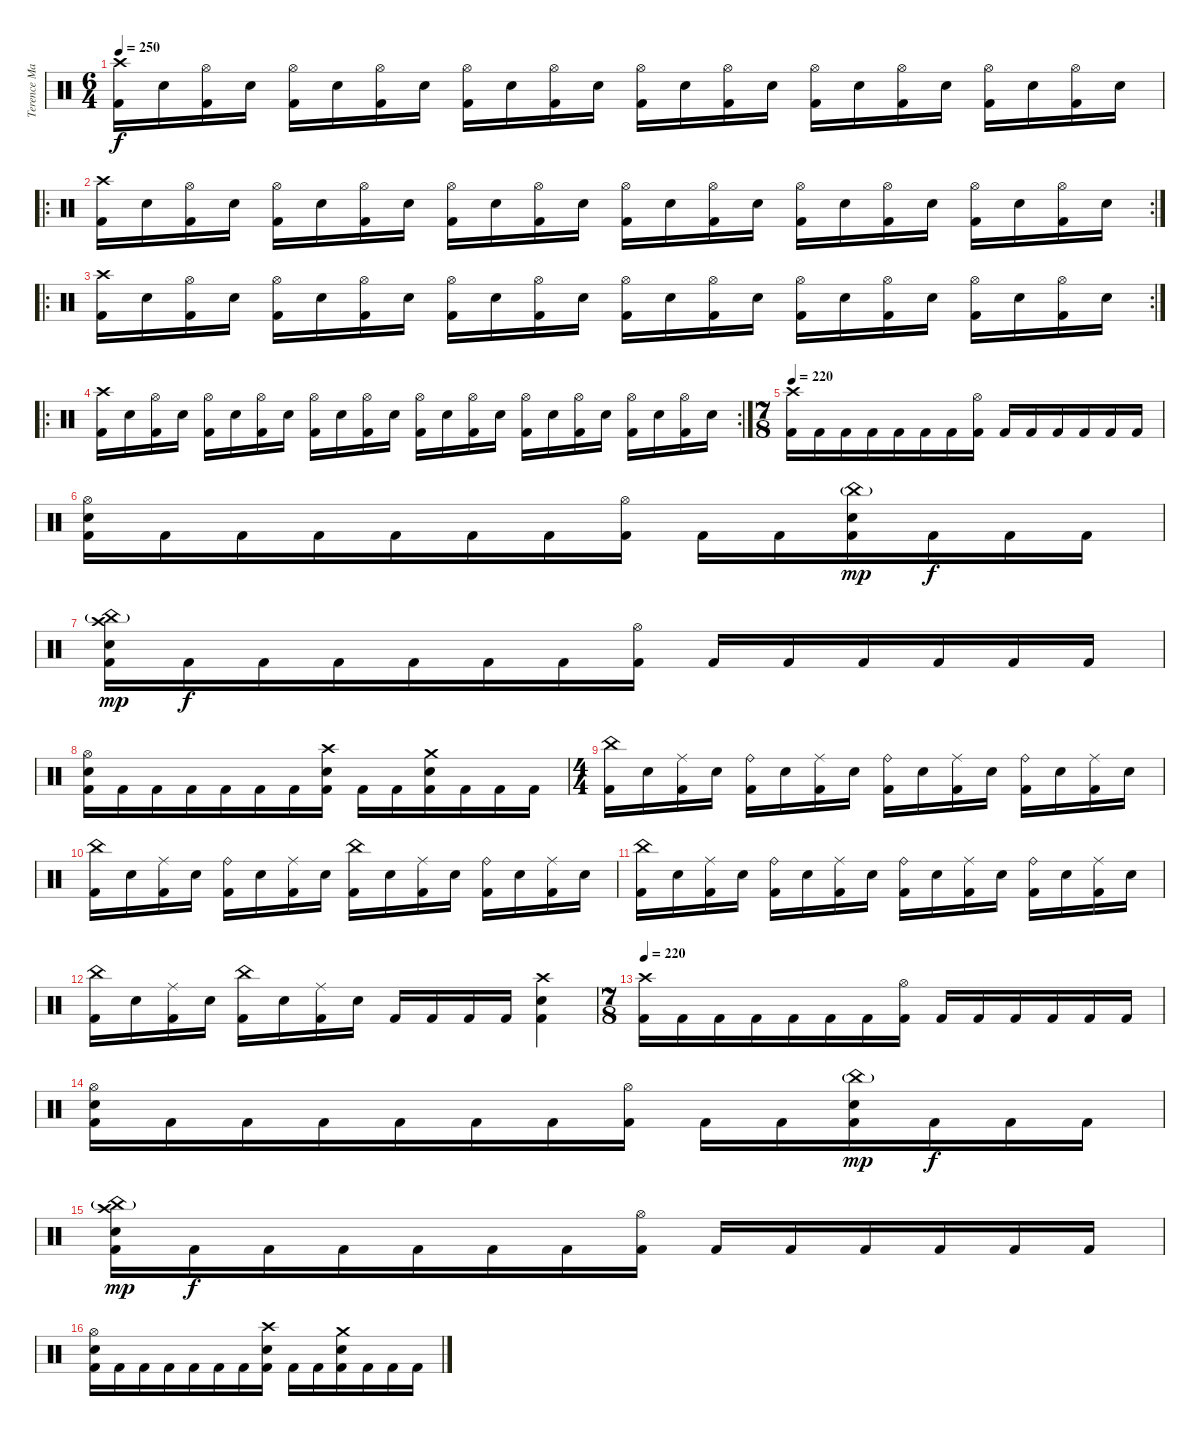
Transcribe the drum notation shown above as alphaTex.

\track ("Terence Manauis" "Terence Ma") {instrument percussion}
\staff {score}
\articulation defaults
\ts (6 4)
\tempo 250
\clef neutral
\ks c
("Crash high (hit)" "Kick (hit) 2").16{dy f} "Electric Snare (hit)".16 ("Hi-Hat (open)" "Kick (hit) 2").16 "Electric Snare (hit)".16 ("Hi-Hat (open)" "Kick (hit) 2").16 "Electric Snare (hit)".16 ("Hi-Hat (open)" "Kick (hit) 2").16 "Electric Snare (hit)".16 ("Hi-Hat (open)" "Kick (hit) 2").16 "Electric Snare (hit)".16 ("Hi-Hat (open)" "Kick (hit) 2").16 "Electric Snare (hit)".16 ("Hi-Hat (open)" "Kick (hit) 2").16 "Electric Snare (hit)".16 ("Hi-Hat (open)" "Kick (hit) 2").16 "Electric Snare (hit)".16 ("Hi-Hat (open)" "Kick (hit) 2").16 "Electric Snare (hit)".16 ("Hi-Hat (open)" "Kick (hit) 2").16 "Electric Snare (hit)".16 ("Hi-Hat (open)" "Kick (hit) 2").16 "Electric Snare (hit)".16 ("Hi-Hat (open)" "Kick (hit) 2").16 "Electric Snare (hit)".16 |
\ro
\rc 2
("Crash high (hit)" "Kick (hit) 2").16 "Electric Snare (hit)".16 ("Hi-Hat (open)" "Kick (hit) 2").16 "Electric Snare (hit)".16 ("Hi-Hat (open)" "Kick (hit) 2").16 "Electric Snare (hit)".16 ("Hi-Hat (open)" "Kick (hit) 2").16 "Electric Snare (hit)".16 ("Hi-Hat (open)" "Kick (hit) 2").16 "Electric Snare (hit)".16 ("Hi-Hat (open)" "Kick (hit) 2").16 "Electric Snare (hit)".16 ("Hi-Hat (open)" "Kick (hit) 2").16 "Electric Snare (hit)".16 ("Hi-Hat (open)" "Kick (hit) 2").16 "Electric Snare (hit)".16 ("Hi-Hat (open)" "Kick (hit) 2").16 "Electric Snare (hit)".16 ("Hi-Hat (open)" "Kick (hit) 2").16 "Electric Snare (hit)".16 ("Hi-Hat (open)" "Kick (hit) 2").16 "Electric Snare (hit)".16 ("Hi-Hat (open)" "Kick (hit) 2").16 "Electric Snare (hit)".16 |
\ro
\rc 2
("Crash high (hit)" "Kick (hit) 2").16 "Electric Snare (hit)".16 ("Hi-Hat (open)" "Kick (hit) 2").16 "Electric Snare (hit)".16 ("Hi-Hat (open)" "Kick (hit) 2").16 "Electric Snare (hit)".16 ("Hi-Hat (open)" "Kick (hit) 2").16 "Electric Snare (hit)".16 ("Hi-Hat (open)" "Kick (hit) 2").16 "Electric Snare (hit)".16 ("Hi-Hat (open)" "Kick (hit) 2").16 "Electric Snare (hit)".16 ("Hi-Hat (open)" "Kick (hit) 2").16 "Electric Snare (hit)".16 ("Hi-Hat (open)" "Kick (hit) 2").16 "Electric Snare (hit)".16 ("Hi-Hat (open)" "Kick (hit) 2").16 "Electric Snare (hit)".16 ("Hi-Hat (open)" "Kick (hit) 2").16 "Electric Snare (hit)".16 ("Hi-Hat (open)" "Kick (hit) 2").16 "Electric Snare (hit)".16 ("Hi-Hat (open)" "Kick (hit) 2").16 "Electric Snare (hit)".16 |
\ro
\rc 2
("Crash high (hit)" "Kick (hit) 2").16 "Electric Snare (hit)".16 ("Hi-Hat (open)" "Kick (hit) 2").16 "Electric Snare (hit)".16 ("Hi-Hat (open)" "Kick (hit) 2").16 "Electric Snare (hit)".16 ("Hi-Hat (open)" "Kick (hit) 2").16 "Electric Snare (hit)".16 ("Hi-Hat (open)" "Kick (hit) 2").16 "Electric Snare (hit)".16 ("Hi-Hat (open)" "Kick (hit) 2").16 "Electric Snare (hit)".16 ("Hi-Hat (open)" "Kick (hit) 2").16 "Electric Snare (hit)".16 ("Hi-Hat (open)" "Kick (hit) 2").16 "Electric Snare (hit)".16 ("Hi-Hat (open)" "Kick (hit) 2").16 "Electric Snare (hit)".16 ("Hi-Hat (open)" "Kick (hit) 2").16 "Electric Snare (hit)".16 ("Hi-Hat (open)" "Kick (hit) 2").16 "Electric Snare (hit)".16 ("Hi-Hat (open)" "Kick (hit) 2").16 "Electric Snare (hit)".16 |
\ts (7 8)
\tempo 220
("Crash high (hit)" "Kick (hit) 2").16{volume 14} "Kick (hit) 2".16 "Kick (hit) 2".16 "Kick (hit) 2".16 "Kick (hit) 2".16 "Kick (hit) 2".16 "Kick (hit) 2".16 ("Hi-Hat (open)" "Kick (hit) 2").16 "Kick (hit) 2".16 "Kick (hit) 2".16 "Kick (hit) 2".16 "Kick (hit) 2".16 "Kick (hit) 2".16 "Kick (hit) 2".16 |
("Hi-Hat (open)" "Electric Snare (hit)" "Kick (hit) 2").16 "Kick (hit) 2".16 "Kick (hit) 2".16 "Kick (hit) 2".16 "Kick (hit) 2".16 "Kick (hit) 2".16 "Kick (hit) 2".16 ("Hi-Hat (open)" "Kick (hit) 2").16 "Kick (hit) 2".16 "Kick (hit) 2".16 ("China (hit)"{g} "Electric Snare (hit)" "Kick (hit) 2").16{dy mp} "Kick (hit) 2".16{dy f} "Kick (hit) 2".16 "Kick (hit) 2".16 |
("Crash high (hit)" "China (hit)"{g} "Electric Snare (hit)" "Kick (hit) 2").16{dy mp} "Kick (hit) 2".16{dy f} "Kick (hit) 2".16 "Kick (hit) 2".16 "Kick (hit) 2".16 "Kick (hit) 2".16 "Kick (hit) 2".16 ("Hi-Hat (open)" "Kick (hit) 2").16 "Kick (hit) 2".16 "Kick (hit) 2".16 "Kick (hit) 2".16 "Kick (hit) 2".16 "Kick (hit) 2".16 "Kick (hit) 2".16 |
("Hi-Hat (open)" "Electric Snare (hit)" "Kick (hit) 2").16 "Kick (hit) 2".16 "Kick (hit) 2".16 "Kick (hit) 2".16 "Kick (hit) 2".16 "Kick (hit) 2".16 "Kick (hit) 2".16 ("Crash high (hit)" "Electric Snare (hit)" "Kick (hit) 2").16 "Kick (hit) 2".16 "Kick (hit) 2".16 ("Crash medium (hit)" "Electric Snare (hit)" "Kick (hit) 2").16 "Kick (hit) 2".16 "Kick (hit) 2".16 "Kick (hit) 2".16 |
\ts (4 4)
("China (hit)" "Kick (hit) 2").16{volume 12} "Electric Snare (hit)".16 ("Ride (middle)" "Kick (hit) 2").16 "Electric Snare (hit)".16 ("Ride (bell)" "Kick (hit) 2").16 "Electric Snare (hit)".16 ("Ride (middle)" "Kick (hit) 2").16 "Electric Snare (hit)".16 ("Ride (bell)" "Kick (hit) 2").16 "Electric Snare (hit)".16 ("Ride (middle)" "Kick (hit) 2").16 "Electric Snare (hit)".16 ("Ride (bell)" "Kick (hit) 2").16 "Electric Snare (hit)".16 ("Ride (middle)" "Kick (hit) 2").16 "Electric Snare (hit)".16 |
("China (hit)" "Kick (hit) 2").16 "Electric Snare (hit)".16 ("Ride (middle)" "Kick (hit) 2").16 "Electric Snare (hit)".16 ("Ride (bell)" "Kick (hit) 2").16 "Electric Snare (hit)".16 ("Ride (middle)" "Kick (hit) 2").16 "Electric Snare (hit)".16 ("China (hit)" "Kick (hit) 2").16 "Electric Snare (hit)".16 ("Ride (middle)" "Kick (hit) 2").16 "Electric Snare (hit)".16 ("Ride (bell)" "Kick (hit) 2").16 "Electric Snare (hit)".16 ("Ride (middle)" "Kick (hit) 2").16 "Electric Snare (hit)".16 |
("China (hit)" "Kick (hit) 2").16 "Electric Snare (hit)".16 ("Ride (middle)" "Kick (hit) 2").16 "Electric Snare (hit)".16 ("Ride (bell)" "Kick (hit) 2").16 "Electric Snare (hit)".16 ("Ride (middle)" "Kick (hit) 2").16 "Electric Snare (hit)".16 ("Ride (bell)" "Kick (hit) 2").16 "Electric Snare (hit)".16 ("Ride (middle)" "Kick (hit) 2").16 "Electric Snare (hit)".16 ("Ride (bell)" "Kick (hit) 2").16 "Electric Snare (hit)".16 ("Ride (middle)" "Kick (hit) 2").16 "Electric Snare (hit)".16 |
("China (hit)" "Kick (hit) 2").16 "Electric Snare (hit)".16 ("Ride (middle)" "Kick (hit) 2").16 "Electric Snare (hit)".16 ("China (hit)" "Kick (hit) 2").16 "Electric Snare (hit)".16 ("Ride (middle)" "Kick (hit) 2").16 "Electric Snare (hit)".16 "Kick (hit) 2".16 "Kick (hit) 2".16 "Kick (hit) 2".16 "Kick (hit) 2".16 ("Crash high (hit)" "Electric Snare (hit)" "Kick (hit) 2").4 |
\ts (7 8)
\tempo 220
("Crash high (hit)" "Kick (hit) 2").16{volume 14} "Kick (hit) 2".16 "Kick (hit) 2".16 "Kick (hit) 2".16 "Kick (hit) 2".16 "Kick (hit) 2".16 "Kick (hit) 2".16 ("Hi-Hat (open)" "Kick (hit) 2").16 "Kick (hit) 2".16 "Kick (hit) 2".16 "Kick (hit) 2".16 "Kick (hit) 2".16 "Kick (hit) 2".16 "Kick (hit) 2".16 |
("Hi-Hat (open)" "Electric Snare (hit)" "Kick (hit) 2").16 "Kick (hit) 2".16 "Kick (hit) 2".16 "Kick (hit) 2".16 "Kick (hit) 2".16 "Kick (hit) 2".16 "Kick (hit) 2".16 ("Hi-Hat (open)" "Kick (hit) 2").16 "Kick (hit) 2".16 "Kick (hit) 2".16 ("China (hit)"{g} "Electric Snare (hit)" "Kick (hit) 2").16{dy mp} "Kick (hit) 2".16{dy f} "Kick (hit) 2".16 "Kick (hit) 2".16 |
("Crash high (hit)" "China (hit)"{g} "Electric Snare (hit)" "Kick (hit) 2").16{dy mp} "Kick (hit) 2".16{dy f} "Kick (hit) 2".16 "Kick (hit) 2".16 "Kick (hit) 2".16 "Kick (hit) 2".16 "Kick (hit) 2".16 ("Hi-Hat (open)" "Kick (hit) 2").16 "Kick (hit) 2".16 "Kick (hit) 2".16 "Kick (hit) 2".16 "Kick (hit) 2".16 "Kick (hit) 2".16 "Kick (hit) 2".16 |
("Hi-Hat (open)" "Electric Snare (hit)" "Kick (hit) 2").16 "Kick (hit) 2".16 "Kick (hit) 2".16 "Kick (hit) 2".16 "Kick (hit) 2".16 "Kick (hit) 2".16 "Kick (hit) 2".16 ("Crash high (hit)" "Electric Snare (hit)" "Kick (hit) 2").16 "Kick (hit) 2".16 "Kick (hit) 2".16 ("Crash medium (hit)" "Electric Snare (hit)" "Kick (hit) 2").16 "Kick (hit) 2".16 "Kick (hit) 2".16 "Kick (hit) 2".16
